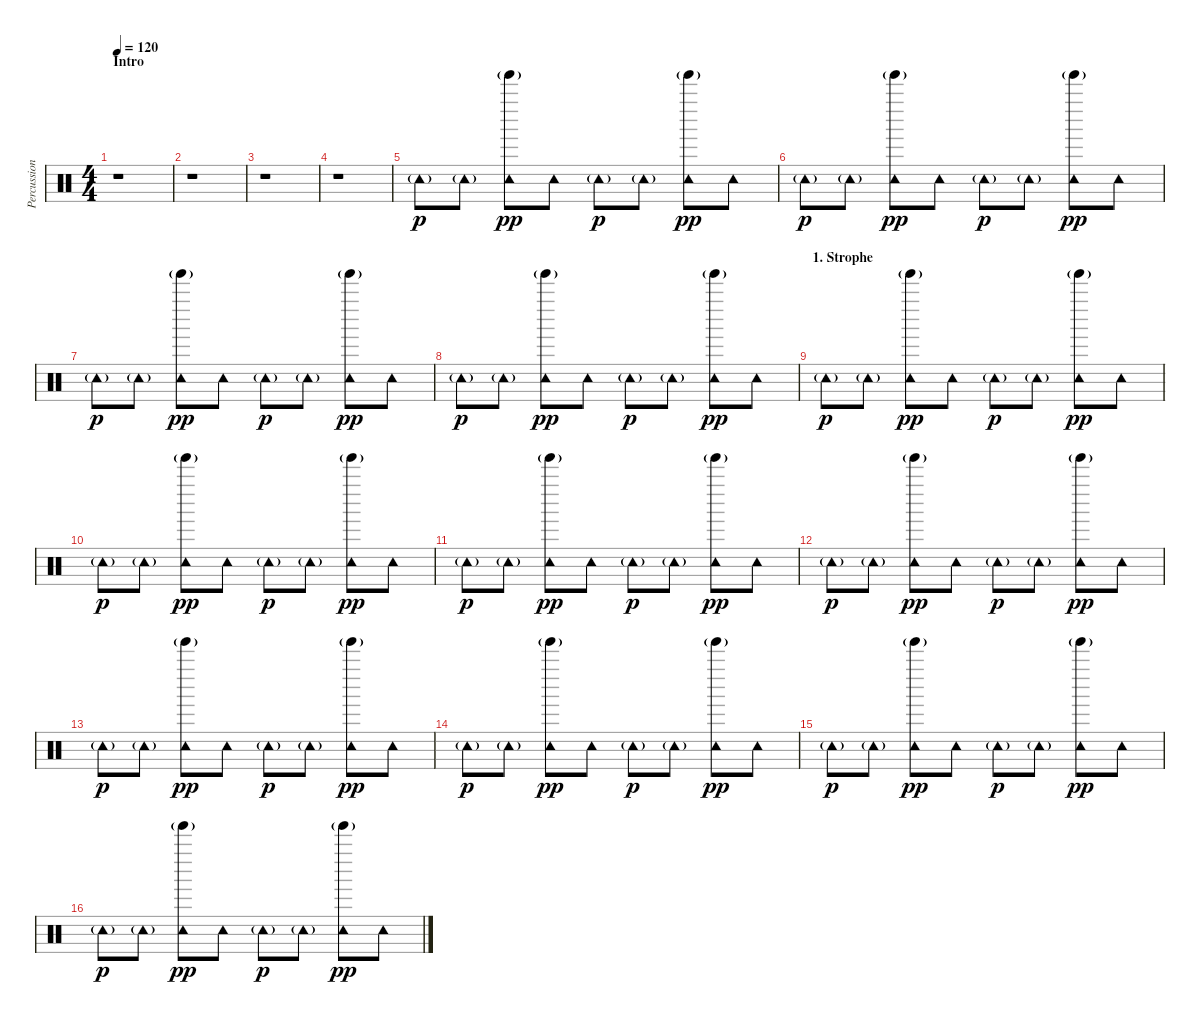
\track ("Percussion     E" "Percussion") {instrument percussion}
\staff {score}
\articulation defaults
\ts (4 4)
\section ("" "Intro")
\tempo 120
\clef neutral
\ks c
r.1{dy p} |
r.1 |
r.1 |
r.1 |
"Tambourine (hit)"{g}.8 "Tambourine (hit)"{g}.8 ("Tambourine (hit)" "Tinkle Bell (hit)"{g}).8{dy pp} "Tambourine (hit)".8 "Tambourine (hit)"{g}.8{dy p} "Tambourine (hit)"{g}.8 ("Tambourine (hit)" "Tinkle Bell (hit)"{g}).8{dy pp} "Tambourine (hit)".8 |
"Tambourine (hit)"{g}.8{dy p} "Tambourine (hit)"{g}.8 ("Tambourine (hit)" "Tinkle Bell (hit)"{g}).8{dy pp} "Tambourine (hit)".8 "Tambourine (hit)"{g}.8{dy p} "Tambourine (hit)"{g}.8 ("Tambourine (hit)" "Tinkle Bell (hit)"{g}).8{dy pp} "Tambourine (hit)".8 |
"Tambourine (hit)"{g}.8{dy p} "Tambourine (hit)"{g}.8 ("Tambourine (hit)" "Tinkle Bell (hit)"{g}).8{dy pp} "Tambourine (hit)".8 "Tambourine (hit)"{g}.8{dy p} "Tambourine (hit)"{g}.8 ("Tambourine (hit)" "Tinkle Bell (hit)"{g}).8{dy pp} "Tambourine (hit)".8 |
"Tambourine (hit)"{g}.8{dy p} "Tambourine (hit)"{g}.8 ("Tambourine (hit)" "Tinkle Bell (hit)"{g}).8{dy pp} "Tambourine (hit)".8 "Tambourine (hit)"{g}.8{dy p} "Tambourine (hit)"{g}.8 ("Tambourine (hit)" "Tinkle Bell (hit)"{g}).8{dy pp} "Tambourine (hit)".8 |
\section ("" "1. Strophe")
"Tambourine (hit)"{g}.8{dy p} "Tambourine (hit)"{g}.8 ("Tambourine (hit)" "Tinkle Bell (hit)"{g}).8{dy pp} "Tambourine (hit)".8 "Tambourine (hit)"{g}.8{dy p} "Tambourine (hit)"{g}.8 ("Tambourine (hit)" "Tinkle Bell (hit)"{g}).8{dy pp} "Tambourine (hit)".8 |
"Tambourine (hit)"{g}.8{dy p} "Tambourine (hit)"{g}.8 ("Tambourine (hit)" "Tinkle Bell (hit)"{g}).8{dy pp} "Tambourine (hit)".8 "Tambourine (hit)"{g}.8{dy p} "Tambourine (hit)"{g}.8 ("Tambourine (hit)" "Tinkle Bell (hit)"{g}).8{dy pp} "Tambourine (hit)".8 |
"Tambourine (hit)"{g}.8{dy p} "Tambourine (hit)"{g}.8 ("Tambourine (hit)" "Tinkle Bell (hit)"{g}).8{dy pp} "Tambourine (hit)".8 "Tambourine (hit)"{g}.8{dy p} "Tambourine (hit)"{g}.8 ("Tambourine (hit)" "Tinkle Bell (hit)"{g}).8{dy pp} "Tambourine (hit)".8 |
"Tambourine (hit)"{g}.8{dy p} "Tambourine (hit)"{g}.8 ("Tambourine (hit)" "Tinkle Bell (hit)"{g}).8{dy pp} "Tambourine (hit)".8 "Tambourine (hit)"{g}.8{dy p} "Tambourine (hit)"{g}.8 ("Tambourine (hit)" "Tinkle Bell (hit)"{g}).8{dy pp} "Tambourine (hit)".8 |
"Tambourine (hit)"{g}.8{dy p} "Tambourine (hit)"{g}.8 ("Tambourine (hit)" "Tinkle Bell (hit)"{g}).8{dy pp} "Tambourine (hit)".8 "Tambourine (hit)"{g}.8{dy p} "Tambourine (hit)"{g}.8 ("Tambourine (hit)" "Tinkle Bell (hit)"{g}).8{dy pp} "Tambourine (hit)".8 |
"Tambourine (hit)"{g}.8{dy p} "Tambourine (hit)"{g}.8 ("Tambourine (hit)" "Tinkle Bell (hit)"{g}).8{dy pp} "Tambourine (hit)".8 "Tambourine (hit)"{g}.8{dy p} "Tambourine (hit)"{g}.8 ("Tambourine (hit)" "Tinkle Bell (hit)"{g}).8{dy pp} "Tambourine (hit)".8 |
"Tambourine (hit)"{g}.8{dy p} "Tambourine (hit)"{g}.8 ("Tambourine (hit)" "Tinkle Bell (hit)"{g}).8{dy pp} "Tambourine (hit)".8 "Tambourine (hit)"{g}.8{dy p} "Tambourine (hit)"{g}.8 ("Tambourine (hit)" "Tinkle Bell (hit)"{g}).8{dy pp} "Tambourine (hit)".8 |
"Tambourine (hit)"{g}.8{dy p} "Tambourine (hit)"{g}.8 ("Tambourine (hit)" "Tinkle Bell (hit)"{g}).8{dy pp} "Tambourine (hit)".8 "Tambourine (hit)"{g}.8{dy p} "Tambourine (hit)"{g}.8 ("Tambourine (hit)" "Tinkle Bell (hit)"{g}).8{dy pp} "Tambourine (hit)".8
